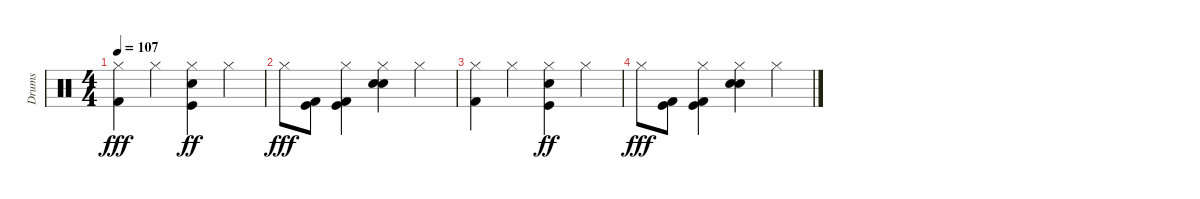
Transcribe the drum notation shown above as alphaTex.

\track ("Drums" "Drums") {instrument percussion}
\staff {score}
\articulation defaults
\ts (4 4)
\tempo 107
\clef neutral
\ks c
("Hi-Hat (closed)" "Kick (hit) 2").4{dy fff} "Hi-Hat (closed)".4 ("Hi-Hat (closed)" "Kick (hit)" "Snare (hit) 2").4{dy ff} "Hi-Hat (closed)".4 |
"Hi-Hat (closed)".8{dy fff} ("Kick (hit)" "Kick (hit) 2").8 ("Hi-Hat (closed)" "Kick (hit)" "Kick (hit) 2").4 ("Hi-Hat (closed)" "Electric Snare (hit)" "Snare (hit) 2").4 "Hi-Hat (closed)".4 |
("Hi-Hat (closed)" "Kick (hit) 2").4 "Hi-Hat (closed)".4 ("Hi-Hat (closed)" "Kick (hit)" "Snare (hit) 2").4{dy ff} "Hi-Hat (closed)".4 |
"Hi-Hat (closed)".8{dy fff} ("Kick (hit)" "Kick (hit) 2").8 ("Hi-Hat (closed)" "Kick (hit)" "Kick (hit) 2").4 ("Hi-Hat (closed)" "Electric Snare (hit)" "Snare (hit) 2").4 "Hi-Hat (closed)".4
